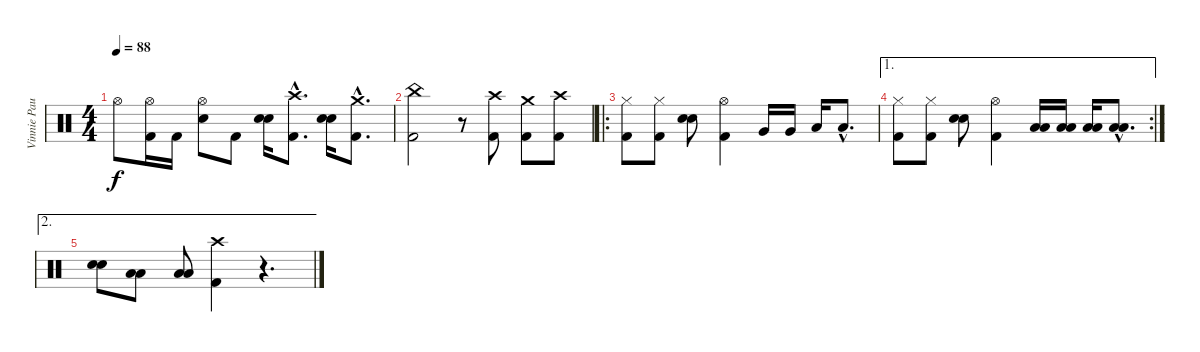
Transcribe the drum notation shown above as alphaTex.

\track ("Vinnie Paul (Drums)" "Vinnie Pau") {instrument percussion}
\staff {score}
\articulation defaults
\ts (4 4)
\tempo 88
\clef neutral
\ks c "Hi-Hat (open)".8{dy f}
("Hi-Hat (open)" "Kick (hit) 2").16 "Kick (hit) 2".16 ("Hi-Hat (open)" "Snare (hit) 2").8 "Kick (hit) 2".8 ("Snare (hit) 2" "Snare (hit) 2").16{bd 480} ("Crash high (hit)"{hac} "Kick (hit) 2"{hac}).8{d} ("Snare (hit) 2" "Snare (hit) 2").16{bd 480} ("Crash medium (hit)"{hac} "Kick (hit) 2"{hac}).8{d} |
("China (hit)" "Kick (hit) 2").2 r.8 ("Crash high (hit)" "Kick (hit) 2").8 ("Crash medium (hit)" "Kick (hit) 2").8 ("Crash high (hit)" "Kick (hit) 2").8 |
\ro
("Hi-Hat (closed)" "Kick (hit) 2").8 ("Hi-Hat (closed)" "Kick (hit) 2").8 ("Snare (hit) 2" "Snare (hit) 2").8{bd 120} ("Hi-Hat (open)" "Kick (hit) 2").4 "Very Low Tom (hit)".16 "Very Low Tom (hit)".16 "Low Floor Tom (hit)".16 "Low Floor Tom (hit)"{hac}.8{d} |
\ae 1
\rc 2
("Hi-Hat (closed)" "Kick (hit) 2").8 ("Hi-Hat (closed)" "Kick (hit) 2").8 ("Snare (hit) 2" "Snare (hit) 2").8 ("Hi-Hat (open)" "Kick (hit) 2").4 ("Low Floor Tom (hit)" "Low Floor Tom (hit)").16 ("Low Floor Tom (hit)" "Low Floor Tom (hit)").16 ("Low Floor Tom (hit)" "Low Floor Tom (hit)").16 ("Low Floor Tom (hit)"{hac} "Low Floor Tom (hit)"{hac}).8{d} |
\ae 2
("Snare (hit) 2" "Snare (hit) 2").8{bd 120} ("Low Tom (hit)" "Low Tom (hit)").8 ("Low Floor Tom (hit)" "Low Floor Tom (hit)").8 ("Crash high (hit)" "Kick (hit) 2").4 r.4{d}
